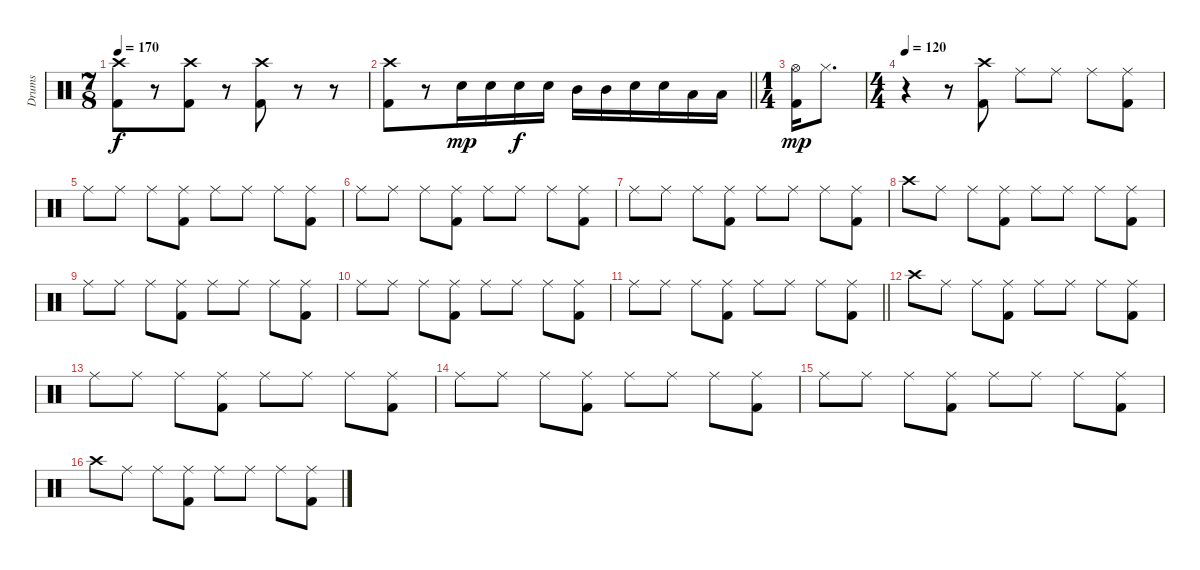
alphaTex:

\track ("Drums" "Drums") {instrument percussion}
\staff {score}
\articulation defaults
\ts (7 8)
\tempo 170
\clef neutral
\ks c
("Crash high (hit)" "Kick (hit) 2").8{dy f} r.8 ("Crash high (hit)" "Kick (hit) 2").8 r.8 ("Crash high (hit)" "Kick (hit) 2").8 r.8 r.8 |
\barLineRight lightlight
("Crash high (hit)" "Kick (hit) 2").8 r.8 "Snare (hit) 2".16{dy mp} "Snare (hit) 2".16 "Snare (hit) 2".16{dy f} "Snare (hit) 2".16 "Mid Tom (hit)".16 "Mid Tom (hit)".16 "Snare (hit) 2".16 "Snare (hit) 2".16 "Low Tom (hit)".16 "Low Tom (hit)".16 |
\ts (1 4)
("Hi-Hat (open)" "Kick (hit) 2").16{dy mp} "Hi-Hat (closed)".8{d} |
\ts (4 4)
\tempo 120
r.4 r.8 ("Crash high (hit)" "Kick (hit) 2").8 "Ride (middle)".8 "Ride (middle)".8 "Ride (middle)".8 ("Ride (middle)" "Kick (hit) 2").8 |
"Ride (middle)".8 "Ride (middle)".8 "Ride (middle)".8 ("Ride (middle)" "Kick (hit) 2").8 "Ride (middle)".8 "Ride (middle)".8 "Ride (middle)".8 ("Ride (middle)" "Kick (hit) 2").8 |
"Ride (middle)".8 "Ride (middle)".8 "Ride (middle)".8 ("Ride (middle)" "Kick (hit) 2").8 "Ride (middle)".8 "Ride (middle)".8 "Ride (middle)".8 ("Ride (middle)" "Kick (hit) 2").8 |
"Ride (middle)".8 "Ride (middle)".8 "Ride (middle)".8 ("Ride (middle)" "Kick (hit) 2").8 "Ride (middle)".8 "Ride (middle)".8 "Ride (middle)".8 ("Ride (middle)" "Kick (hit) 2").8 |
"Crash high (hit)".8 "Ride (middle)".8 "Ride (middle)".8 ("Ride (middle)" "Kick (hit) 2").8 "Ride (middle)".8 "Ride (middle)".8 "Ride (middle)".8 ("Ride (middle)" "Kick (hit) 2").8 |
"Ride (middle)".8 "Ride (middle)".8 "Ride (middle)".8 ("Ride (middle)" "Kick (hit) 2").8 "Ride (middle)".8 "Ride (middle)".8 "Ride (middle)".8 ("Ride (middle)" "Kick (hit) 2").8 |
"Ride (middle)".8 "Ride (middle)".8 "Ride (middle)".8 ("Ride (middle)" "Kick (hit) 2").8 "Ride (middle)".8 "Ride (middle)".8 "Ride (middle)".8 ("Ride (middle)" "Kick (hit) 2").8 |
\barLineRight lightlight "Ride (middle)".8 "Ride (middle)".8 "Ride (middle)".8
("Ride (middle)" "Kick (hit) 2").8 "Ride (middle)".8 "Ride (middle)".8 "Ride (middle)".8 ("Ride (middle)" "Kick (hit) 2").8 |
"Crash high (hit)".8{volume 8} "Ride (middle)".8 "Ride (middle)".8 ("Ride (middle)" "Kick (hit) 2").8 "Ride (middle)".8 "Ride (middle)".8 "Ride (middle)".8 ("Ride (middle)" "Kick (hit) 2").8 |
"Ride (middle)".8 "Ride (middle)".8 "Ride (middle)".8 ("Ride (middle)" "Kick (hit) 2").8 "Ride (middle)".8 "Ride (middle)".8 "Ride (middle)".8 ("Ride (middle)" "Kick (hit) 2").8 |
"Ride (middle)".8 "Ride (middle)".8 "Ride (middle)".8 ("Ride (middle)" "Kick (hit) 2").8 "Ride (middle)".8 "Ride (middle)".8 "Ride (middle)".8 ("Ride (middle)" "Kick (hit) 2").8 |
"Ride (middle)".8 "Ride (middle)".8 "Ride (middle)".8 ("Ride (middle)" "Kick (hit) 2").8 "Ride (middle)".8 "Ride (middle)".8 "Ride (middle)".8 ("Ride (middle)" "Kick (hit) 2").8 |
"Crash high (hit)".8 "Ride (middle)".8 "Ride (middle)".8 ("Ride (middle)" "Kick (hit) 2").8 "Ride (middle)".8 "Ride (middle)".8 "Ride (middle)".8 ("Ride (middle)" "Kick (hit) 2").8
